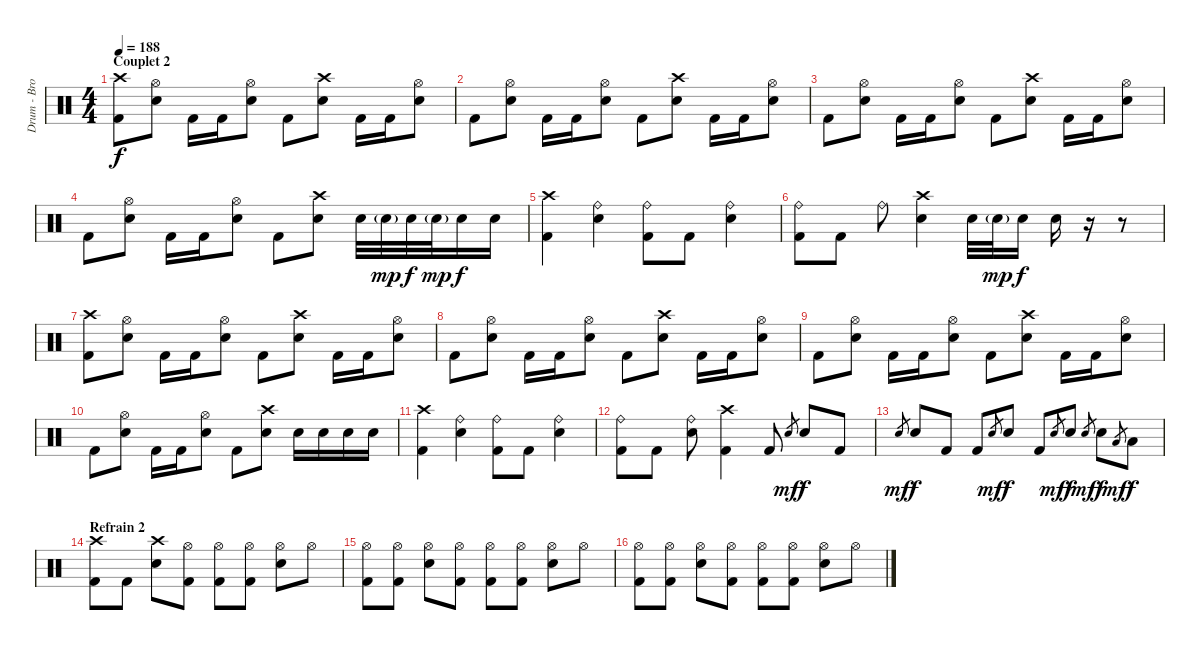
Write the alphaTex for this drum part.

\track ("Drum - Brooks Wackerman" "Drum - Bro") {instrument percussion}
\staff {score}
\articulation defaults
\ts (4 4)
\section ("" "Couplet 2")
\tempo 188
\clef neutral
\ks c
("Crash high (hit)" "Kick (hit) 2").8{dy f} ("Hi-Hat (open)" "Electric Snare (hit)").8 "Kick (hit) 2".16 "Kick (hit) 2".16 ("Hi-Hat (open)" "Electric Snare (hit)").8 "Kick (hit) 2".8 ("Crash high (hit)" "Electric Snare (hit)").8 "Kick (hit) 2".16 "Kick (hit) 2".16 ("Hi-Hat (open)" "Electric Snare (hit)").8 |
"Kick (hit) 2".8 ("Hi-Hat (open)" "Electric Snare (hit)").8 "Kick (hit) 2".16 "Kick (hit) 2".16 ("Hi-Hat (open)" "Electric Snare (hit)").8 "Kick (hit) 2".8 ("Crash high (hit)" "Electric Snare (hit)").8 "Kick (hit) 2".16 "Kick (hit) 2".16 ("Hi-Hat (open)" "Electric Snare (hit)").8 |
"Kick (hit) 2".8 ("Hi-Hat (open)" "Electric Snare (hit)").8 "Kick (hit) 2".16 "Kick (hit) 2".16 ("Hi-Hat (open)" "Electric Snare (hit)").8 "Kick (hit) 2".8 ("Crash high (hit)" "Electric Snare (hit)").8 "Kick (hit) 2".16 "Kick (hit) 2".16 ("Hi-Hat (open)" "Electric Snare (hit)").8 |
"Kick (hit) 2".8 ("Hi-Hat (open)" "Electric Snare (hit)").8 "Kick (hit) 2".16 "Kick (hit) 2".16 ("Hi-Hat (open)" "Electric Snare (hit)").8 "Kick (hit) 2".8 ("Crash high (hit)" "Electric Snare (hit)").8 "Electric Snare (hit)".32 "Electric Snare (hit)"{g}.32{dy mp} "Electric Snare (hit)".32{dy f} "Electric Snare (hit)"{g}.32{dy mp} "Electric Snare (hit)".16{dy f} "Electric Snare (hit)".16 |
("Crash high (hit)" "Kick (hit) 2").4 ("Ride (bell)" "Electric Snare (hit)").4 ("Ride (bell)" "Kick (hit) 2").8 "Kick (hit) 2".8 ("Ride (bell)" "Electric Snare (hit)").4 |
("Ride (bell)" "Kick (hit) 2").8 "Kick (hit) 2".8 "Ride (bell)".8 ("Crash high (hit)" "Electric Snare (hit)").4 "Electric Snare (hit)".32 "Electric Snare (hit)"{g}.32{dy mp} "Electric Snare (hit)".16{dy f} "Electric Snare (hit)".16 r.16 r.8 |
("Crash high (hit)" "Kick (hit) 2").8 ("Hi-Hat (open)" "Electric Snare (hit)").8 "Kick (hit) 2".16 "Kick (hit) 2".16 ("Hi-Hat (open)" "Electric Snare (hit)").8 "Kick (hit) 2".8 ("Crash high (hit)" "Electric Snare (hit)").8 "Kick (hit) 2".16 "Kick (hit) 2".16 ("Hi-Hat (open)" "Electric Snare (hit)").8 |
"Kick (hit) 2".8 ("Hi-Hat (open)" "Electric Snare (hit)").8 "Kick (hit) 2".16 "Kick (hit) 2".16 ("Hi-Hat (open)" "Electric Snare (hit)").8 "Kick (hit) 2".8 ("Crash high (hit)" "Electric Snare (hit)").8 "Kick (hit) 2".16 "Kick (hit) 2".16 ("Hi-Hat (open)" "Electric Snare (hit)").8 |
"Kick (hit) 2".8 ("Hi-Hat (open)" "Electric Snare (hit)").8 "Kick (hit) 2".16 "Kick (hit) 2".16 ("Hi-Hat (open)" "Electric Snare (hit)").8 "Kick (hit) 2".8 ("Crash high (hit)" "Electric Snare (hit)").8 "Kick (hit) 2".16 "Kick (hit) 2".16 ("Hi-Hat (open)" "Electric Snare (hit)").8 |
"Kick (hit) 2".8 ("Hi-Hat (open)" "Electric Snare (hit)").8 "Kick (hit) 2".16 "Kick (hit) 2".16 ("Hi-Hat (open)" "Electric Snare (hit)").8 "Kick (hit) 2".8 ("Crash high (hit)" "Electric Snare (hit)").8 "Electric Snare (hit)".16 "Electric Snare (hit)".16 "Electric Snare (hit)".16 "Electric Snare (hit)".16 |
("Crash high (hit)" "Kick (hit) 2").4 ("Ride (bell)" "Electric Snare (hit)").4 ("Ride (bell)" "Kick (hit) 2").8 "Kick (hit) 2".8 ("Ride (bell)" "Electric Snare (hit)").4 |
("Ride (bell)" "Kick (hit) 2").8 "Kick (hit) 2".8 ("Ride (bell)" "Electric Snare (hit)").8 ("Crash high (hit)" "Kick (hit) 2").4 "Kick (hit) 2".8 "Electric Snare (hit)".8{gr dy mf} "Electric Snare (hit)".8{dy f} "Kick (hit) 2".8 |
"Electric Snare (hit)".8{gr dy mf} "Electric Snare (hit)".8{dy f} "Kick (hit) 2".8 "Kick (hit) 2".8 "Electric Snare (hit)".8{gr dy mf} "Electric Snare (hit)".8{dy f} "Kick (hit) 2".8 "Electric Snare (hit)".8{gr dy mf} "Electric Snare (hit)".8{dy f} "Electric Snare (hit)".8{gr dy mf} "Electric Snare (hit)".8{dy f} "Low Floor Tom (hit)".8{gr dy mf} "Low Floor Tom (hit)".8{dy f} |
\section ("" "Refrain 2")
("Crash high (hit)" "Kick (hit) 2").8 "Kick (hit) 2".8 ("Crash high (hit)" "Electric Snare (hit)").8 ("Hi-Hat (open)" "Kick (hit) 2").8 ("Hi-Hat (open)" "Kick (hit) 2").8 ("Hi-Hat (open)" "Kick (hit) 2").8 ("Hi-Hat (open)" "Electric Snare (hit)").8 "Hi-Hat (open)".8 |
("Hi-Hat (open)" "Kick (hit) 2").8 ("Hi-Hat (open)" "Kick (hit) 2").8 ("Hi-Hat (open)" "Electric Snare (hit)").8 ("Hi-Hat (open)" "Kick (hit) 2").8 ("Hi-Hat (open)" "Kick (hit) 2").8 ("Hi-Hat (open)" "Kick (hit) 2").8 ("Hi-Hat (open)" "Electric Snare (hit)").8 "Hi-Hat (open)".8 |
("Hi-Hat (open)" "Kick (hit) 2").8 ("Hi-Hat (open)" "Kick (hit) 2").8 ("Hi-Hat (open)" "Electric Snare (hit)").8 ("Hi-Hat (open)" "Kick (hit) 2").8 ("Hi-Hat (open)" "Kick (hit) 2").8 ("Hi-Hat (open)" "Kick (hit) 2").8 ("Hi-Hat (open)" "Electric Snare (hit)").8 "Hi-Hat (open)".8
